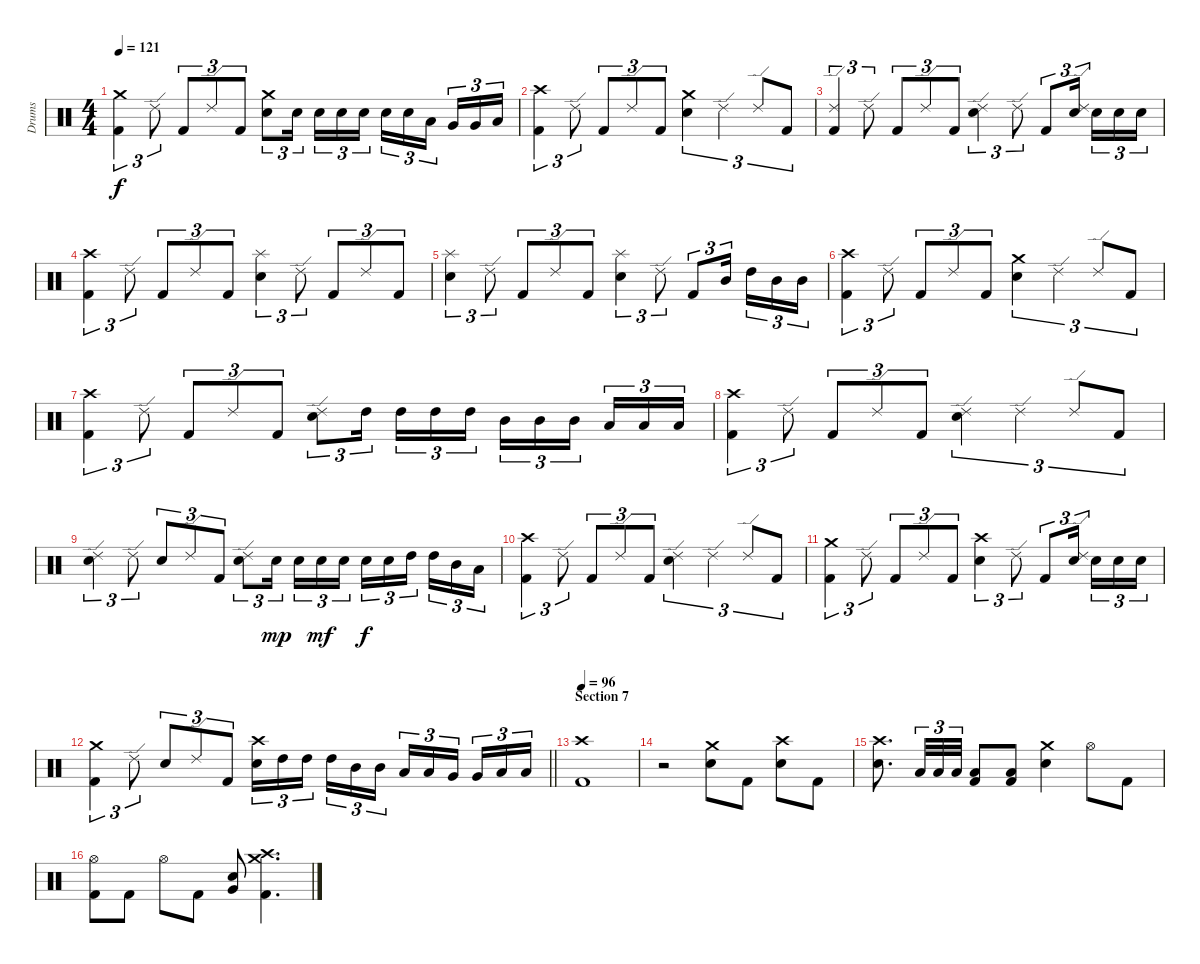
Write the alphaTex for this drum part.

\track ("Drums" "Drums") {instrument percussion}
\staff {score}
\articulation defaults
\ts (4 4)
\tempo 121
\clef neutral
\ks c
("Crash medium (hit)" "Kick (hit) 2").4{tu (3 2) dy f} "Ride (edge) 2".8{tu (3 2)} "Kick (hit) 2".8{tu (3 2)} "Ride (edge) 2".8{tu (3 2)} "Kick (hit) 2".8{tu (3 2)} ("Crash medium (hit)" "Electric Snare (hit)").8{tu (3 2)} "Electric Snare (hit)".16{tu (3 2) beam splitsecondary} "Electric Snare (hit)".16{tu (3 2)} "Electric Snare (hit)".16{tu (3 2)} "Electric Snare (hit)".16{tu (3 2)} "Electric Snare (hit)".16{tu (3 2)} "Electric Snare (hit)".16{tu (3 2)} "Low Tom (hit)".16{tu (3 2) beam splitsecondary} "Very Low Tom (hit)".16{tu (3 2)} "Very Low Tom (hit)".16{tu (3 2)} "Low Floor Tom (hit)".16{tu (3 2)} |
("Crash high (hit)" "Kick (hit) 2").4{tu (3 2)} "Ride (edge) 2".8{tu (3 2)} "Kick (hit) 2".8{tu (3 2)} "Ride (edge) 2".8{tu (3 2)} "Kick (hit) 2".8{tu (3 2)} ("Crash medium (hit)" "Electric Snare (hit)").4{tu (3 2)} "Ride (edge) 2".4{tu (3 2)} "Ride (edge) 2".8{tu (3 2)} "Kick (hit) 2".8{tu (3 2)} |
("Ride (edge) 2" "Kick (hit) 2").4{tu (3 2)} "Ride (edge) 2".8{tu (3 2)} "Kick (hit) 2".8{tu (3 2)} "Ride (edge) 2".8{tu (3 2)} "Kick (hit) 2".8{tu (3 2)} ("Ride (edge) 2" "Electric Snare (hit)").4{tu (3 2)} "Ride (edge) 2".8{tu (3 2)} "Kick (hit) 2".8{tu (3 2)} ("Ride (edge) 2" "Electric Snare (hit)").16{tu (3 2) beam splitsecondary} "Electric Snare (hit)".16{tu (3 2)} "Electric Snare (hit)".16{tu (3 2)} "Electric Snare (hit)".16{tu (3 2)} |
("Crash high (hit)" "Kick (hit) 2").4{tu (3 2)} "Ride (edge) 2".8{tu (3 2)} "Kick (hit) 2".8{tu (3 2)} "Ride (edge) 2".8{tu (3 2)} "Kick (hit) 2".8{tu (3 2)} ("Splash (hit)" "Electric Snare (hit)").4{tu (3 2)} "Ride (edge) 2".8{tu (3 2)} "Kick (hit) 2".8{tu (3 2)} "Ride (edge) 2".8{tu (3 2)} "Kick (hit) 2".8{tu (3 2)} |
("Splash (hit)" "Electric Snare (hit)").4{tu (3 2)} "Ride (edge) 2".8{tu (3 2)} "Kick (hit) 2".8{tu (3 2)} "Ride (edge) 2".8{tu (3 2)} "Kick (hit) 2".8{tu (3 2)} ("Splash (hit)" "Electric Snare (hit)").4{tu (3 2)} "Ride (edge) 2".8{tu (3 2)} "Kick (hit) 2".8{tu (3 2)} "Mid Tom (hit)".16{tu (3 2) beam splitsecondary} "High Tom (hit)".16{tu (3 2)} "Mid Tom (hit)".16{tu (3 2)} "Mid Tom (hit)".16{tu (3 2)} |
("Crash high (hit)" "Kick (hit) 2").4{tu (3 2)} "Ride (edge) 2".8{tu (3 2)} "Kick (hit) 2".8{tu (3 2)} "Ride (edge) 2".8{tu (3 2)} "Kick (hit) 2".8{tu (3 2)} ("Crash medium (hit)" "Electric Snare (hit)").4{tu (3 2)} "Ride (edge) 2".4{tu (3 2)} "Ride (edge) 2".8{tu (3 2)} "Kick (hit) 2".8{tu (3 2)} |
("Crash high (hit)" "Kick (hit) 2").4{tu (3 2)} "Ride (edge) 2".8{tu (3 2)} "Kick (hit) 2".8{tu (3 2)} "Ride (edge) 2".8{tu (3 2)} "Kick (hit) 2".8{tu (3 2)} ("Ride (edge) 2" "Electric Snare (hit)").8{tu (3 2)} "High Tom (hit)".16{tu (3 2) beam splitsecondary} "High Tom (hit)".16{tu (3 2)} "High Tom (hit)".16{tu (3 2)} "High Tom (hit)".16{tu (3 2)} "Mid Tom (hit)".16{tu (3 2)} "Mid Tom (hit)".16{tu (3 2)} "Mid Tom (hit)".16{tu (3 2) beam splitsecondary} "Low Tom (hit)".16{tu (3 2)} "Low Tom (hit)".16{tu (3 2)} "Low Tom (hit)".16{tu (3 2)} |
("Crash high (hit)" "Kick (hit) 2").4{tu (3 2)} "Ride (edge) 2".8{tu (3 2)} "Kick (hit) 2".8{tu (3 2)} "Ride (edge) 2".8{tu (3 2)} "Kick (hit) 2".8{tu (3 2)} ("Ride (edge) 2" "Electric Snare (hit)").4{tu (3 2)} "Ride (edge) 2".4{tu (3 2)} "Ride (edge) 2".8{tu (3 2)} "Kick (hit) 2".8{tu (3 2)} |
("Ride (edge) 2" "Electric Snare (hit)").4{tu (3 2)} "Ride (edge) 2".8{tu (3 2)} "Electric Snare (hit)".8{tu (3 2)} "Ride (edge) 2".8{tu (3 2)} "Kick (hit) 2".8{tu (3 2)} ("Ride (edge) 2" "Electric Snare (hit)").8{tu (3 2)} "Electric Snare (hit)".16{tu (3 2) dy mp beam splitsecondary} "Electric Snare (hit)".16{tu (3 2)} "Electric Snare (hit)".16{tu (3 2) dy mf} "Electric Snare (hit)".16{tu (3 2)} "Electric Snare (hit)".16{tu (3 2) dy f} "Electric Snare (hit)".16{tu (3 2)} "High Tom (hit)".16{tu (3 2) beam splitsecondary} "High Tom (hit)".16{tu (3 2)} "Mid Tom (hit)".16{tu (3 2)} "Low Tom (hit)".16{tu (3 2)} |
("Crash high (hit)" "Kick (hit) 2").4{tu (3 2)} "Ride (edge) 2".8{tu (3 2)} "Kick (hit) 2".8{tu (3 2)} "Ride (edge) 2".8{tu (3 2)} "Kick (hit) 2".8{tu (3 2)} ("Ride (edge) 2" "Electric Snare (hit)").4{tu (3 2)} "Ride (edge) 2".4{tu (3 2)} "Ride (edge) 2".8{tu (3 2)} "Kick (hit) 2".8{tu (3 2)} |
("Crash medium (hit)" "Kick (hit) 2").4{tu (3 2)} "Ride (edge) 2".8{tu (3 2)} "Kick (hit) 2".8{tu (3 2)} "Ride (edge) 2".8{tu (3 2)} "Kick (hit) 2".8{tu (3 2)} ("Crash high (hit)" "Electric Snare (hit)").4{tu (3 2)} "Ride (edge) 2".8{tu (3 2)} "Kick (hit) 2".8{tu (3 2)} ("Ride (edge) 2" "Electric Snare (hit)").16{tu (3 2) beam splitsecondary} "Electric Snare (hit)".16{tu (3 2)} "Electric Snare (hit)".16{tu (3 2)} "Electric Snare (hit)".16{tu (3 2)} |
\barLineRight lightlight
("Crash medium (hit)" "Kick (hit) 2").4{tu (3 2)} "Ride (edge) 2".8{tu (3 2)} "Electric Snare (hit)".8{tu (3 2)} "Ride (edge) 2".8{tu (3 2)} "Kick (hit) 2".8{tu (3 2)} ("Crash high (hit)" "Electric Snare (hit)").16{tu (3 2)} "High Tom (hit)".16{tu (3 2)} "High Tom (hit)".16{tu (3 2) beam splitsecondary} "High Tom (hit)".16{tu (3 2)} "Mid Tom (hit)".16{tu (3 2)} "Mid Tom (hit)".16{tu (3 2)} "Low Tom (hit)".16{tu (3 2)} "Low Tom (hit)".16{tu (3 2)} "Very Low Tom (hit)".16{tu (3 2) beam splitsecondary} "Very Low Tom (hit)".16{tu (3 2)} "Low Floor Tom (hit)".16{tu (3 2)} "Low Floor Tom (hit)".16{tu (3 2)} |
\section ("" "Section 7")
\tempo 96
("Crash high (hit)" "Kick (hit) 2").1{volume 14} |
r.2 ("Crash medium (hit)" "Electric Snare (hit)").8 "Kick (hit) 2".8 ("Crash high (hit)" "Electric Snare (hit)").8 "Kick (hit) 2".8 |
("Crash high (hit)" "Electric Snare (hit)").8{d} "Low Tom (hit)".32{tu (3 2)} "Low Tom (hit)".32{tu (3 2)} "Low Tom (hit)".32{tu (3 2)} ("Low Tom (hit)" "Kick (hit) 2").8 ("Low Tom (hit)" "Kick (hit) 2").8 ("Crash medium (hit)" "Electric Snare (hit)").4 "Hi-Hat (open)".8 "Kick (hit) 2".8 |
("Hi-Hat (open)" "Kick (hit) 2").8 "Kick (hit) 2".8 "Hi-Hat (open)".8 "Kick (hit) 2".8 ("Electric Snare (hit)" "Very Low Tom (hit)").8 ("Crash medium (hit)" "Crash high (hit)" "Kick (hit) 2").4{d}
